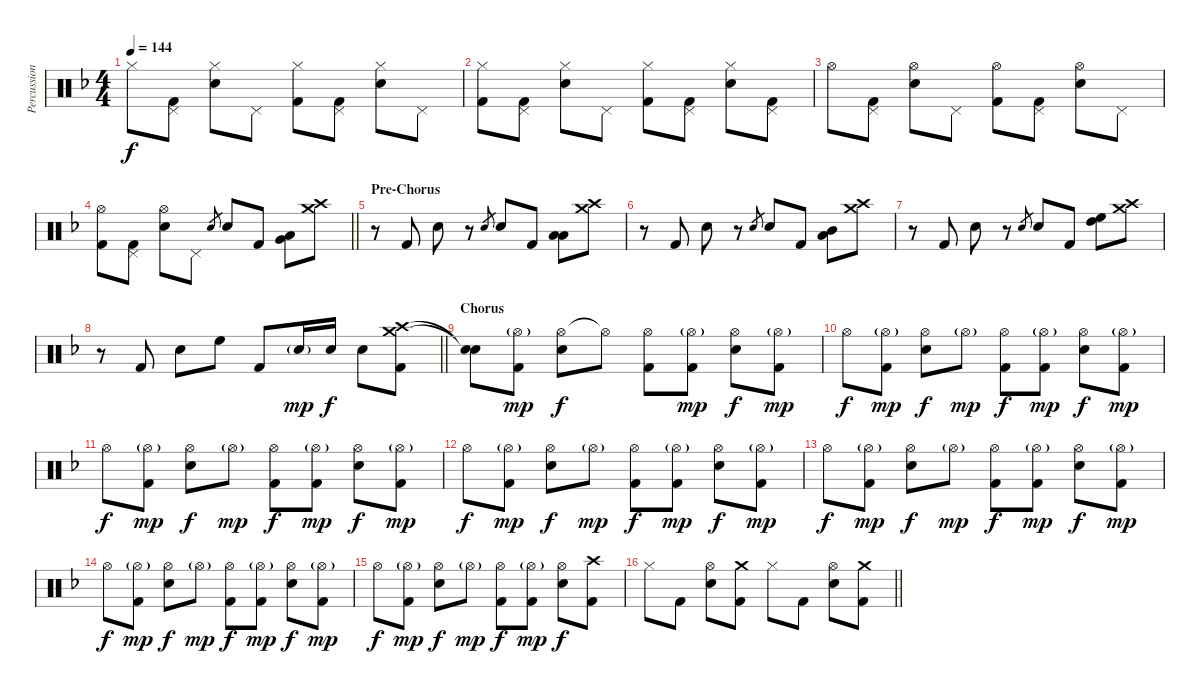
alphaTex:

\track ("Percussion" "Percussion") {instrument percussion}
\staff {score}
\articulation defaults
\ts (4 4)
\tempo 144
\clef neutral
\ks f "Hi-Hat (closed)".8{dy f}
("Pedal Hi-Hat (hit)" "Kick (hit) 2").8 ("Electric Snare (hit)" "Hi-Hat (closed)").8 "Pedal Hi-Hat (hit)".8 ("Hi-Hat (closed)" "Kick (hit) 2").8 ("Pedal Hi-Hat (hit)" "Kick (hit) 2").8 ("Electric Snare (hit)" "Hi-Hat (closed)").8 "Pedal Hi-Hat (hit)".8 |
("Hi-Hat (closed)" "Kick (hit) 2").8 ("Pedal Hi-Hat (hit)" "Kick (hit) 2").8 ("Electric Snare (hit)" "Hi-Hat (closed)").8 "Pedal Hi-Hat (hit)".8 ("Hi-Hat (closed)" "Kick (hit) 2").8 ("Pedal Hi-Hat (hit)" "Kick (hit) 2").8 ("Electric Snare (hit)" "Hi-Hat (closed)").8 ("Pedal Hi-Hat (hit)" "Kick (hit) 2").8 |
"Hi-Hat (open)".8 ("Pedal Hi-Hat (hit)" "Kick (hit) 2").8 ("Electric Snare (hit)" "Hi-Hat (open)").8 "Pedal Hi-Hat (hit)".8 ("Hi-Hat (open)" "Kick (hit) 2").8 ("Pedal Hi-Hat (hit)" "Kick (hit) 2").8 ("Electric Snare (hit)" "Hi-Hat (open)").8 "Pedal Hi-Hat (hit)".8 |
\barLineRight lightlight
("Hi-Hat (open)" "Kick (hit) 2").8 ("Pedal Hi-Hat (hit)" "Kick (hit) 2").8 ("Electric Snare (hit)" "Hi-Hat (open)").8 "Pedal Hi-Hat (hit)".8 "Electric Snare (hit)".8{gr} "Electric Snare (hit)".8 "Kick (hit) 2".8 ("Low Floor Tom (hit)" "Very Low Tom (hit)").8 ("Crash high (hit)" "Crash medium (hit)").8 |
\section ("" "Pre-Chorus")
r.8 "Kick (hit) 2".8 "Electric Snare (hit)".8 r.8 "Electric Snare (hit)".8{gr} "Electric Snare (hit)".8 "Kick (hit) 2".8 ("Low Tom (hit)" "Low Floor Tom (hit)").8 ("Crash medium (hit)" "Crash high (hit)").8 |
r.8 "Kick (hit) 2".8 "Electric Snare (hit)".8 r.8 "Electric Snare (hit)".8{gr} "Electric Snare (hit)".8 "Kick (hit) 2".8 ("Low Tom (hit)" "Mid Tom (hit)").8 ("Crash medium (hit)" "Crash high (hit)").8 |
r.8 "Kick (hit) 2".8 "Electric Snare (hit)".8 r.8 "Electric Snare (hit)".8{gr} "Electric Snare (hit)".8 "Kick (hit) 2".8 ("High Floor Tom (hit)" "High Tom (hit)").8 ("Crash medium (hit)" "Crash high (hit)").8 |
\barLineRight lightlight
r.8 "Kick (hit) 2".8 "Electric Snare (hit)".8 "High Floor Tom (hit)".8 "Kick (hit) 2".8 "Electric Snare (hit)"{g}.16{dy mp} "Electric Snare (hit)".16{dy f} "Electric Snare (hit)".8 ("Crash medium (hit)" "Crash high (hit)" "Kick (hit) 2").8 |
\section ("" "Chorus")
("Snare (hit)"{t} "Snare (hit)"{t}).8 ("Hi-Hat (open)"{g} "Kick (hit) 2").8{dy mp} ("Hi-Hat (open)" "Electric Snare (hit)").8{dy f} "Hi-Hat (open)"{t}.8 ("Hi-Hat (open)" "Kick (hit) 2").8 ("Hi-Hat (open)"{g} "Kick (hit) 2").8{dy mp} ("Hi-Hat (open)" "Electric Snare (hit)").8{dy f} ("Hi-Hat (open)"{g} "Kick (hit) 2").8{dy mp} |
"Hi-Hat (open)".8{dy f} ("Hi-Hat (open)"{g} "Kick (hit) 2").8{dy mp} ("Hi-Hat (open)" "Electric Snare (hit)").8{dy f} "Hi-Hat (open)"{g}.8{dy mp} ("Hi-Hat (open)" "Kick (hit) 2").8{dy f} ("Hi-Hat (open)"{g} "Kick (hit) 2").8{dy mp} ("Hi-Hat (open)" "Electric Snare (hit)").8{dy f} ("Hi-Hat (open)"{g} "Kick (hit) 2").8{dy mp} |
"Hi-Hat (open)".8{dy f} ("Hi-Hat (open)"{g} "Kick (hit) 2").8{dy mp} ("Hi-Hat (open)" "Electric Snare (hit)").8{dy f} "Hi-Hat (open)"{g}.8{dy mp} ("Hi-Hat (open)" "Kick (hit) 2").8{dy f} ("Hi-Hat (open)"{g} "Kick (hit) 2").8{dy mp} ("Hi-Hat (open)" "Electric Snare (hit)").8{dy f} ("Hi-Hat (open)"{g} "Kick (hit) 2").8{dy mp} |
"Hi-Hat (open)".8{dy f} ("Hi-Hat (open)"{g} "Kick (hit) 2").8{dy mp} ("Hi-Hat (open)" "Electric Snare (hit)").8{dy f} "Hi-Hat (open)"{g}.8{dy mp} ("Hi-Hat (open)" "Kick (hit) 2").8{dy f} ("Hi-Hat (open)"{g} "Kick (hit) 2").8{dy mp} ("Hi-Hat (open)" "Electric Snare (hit)").8{dy f} ("Hi-Hat (open)"{g} "Kick (hit) 2").8{dy mp} |
"Hi-Hat (open)".8{dy f} ("Hi-Hat (open)"{g} "Kick (hit) 2").8{dy mp} ("Hi-Hat (open)" "Electric Snare (hit)").8{dy f} "Hi-Hat (open)"{g}.8{dy mp} ("Hi-Hat (open)" "Kick (hit) 2").8{dy f} ("Hi-Hat (open)"{g} "Kick (hit) 2").8{dy mp} ("Hi-Hat (open)" "Electric Snare (hit)").8{dy f} ("Hi-Hat (open)"{g} "Kick (hit) 2").8{dy mp} |
"Hi-Hat (open)".8{dy f} ("Hi-Hat (open)"{g} "Kick (hit) 2").8{dy mp} ("Hi-Hat (open)" "Electric Snare (hit)").8{dy f} "Hi-Hat (open)"{g}.8{dy mp} ("Hi-Hat (open)" "Kick (hit) 2").8{dy f} ("Hi-Hat (open)"{g} "Kick (hit) 2").8{dy mp} ("Hi-Hat (open)" "Electric Snare (hit)").8{dy f} ("Hi-Hat (open)"{g} "Kick (hit) 2").8{dy mp} |
"Hi-Hat (open)".8{dy f} ("Hi-Hat (open)"{g} "Kick (hit) 2").8{dy mp} ("Hi-Hat (open)" "Electric Snare (hit)").8{dy f} "Hi-Hat (open)"{g}.8{dy mp} ("Hi-Hat (open)" "Kick (hit) 2").8{dy f} ("Hi-Hat (open)"{g} "Kick (hit) 2").8{dy mp} ("Hi-Hat (open)" "Electric Snare (hit)").8{dy f} ("Crash high (hit)" "Kick (hit) 2").8 |
\barLineRight lightlight "Hi-Hat (closed)".8 "Kick (hit) 2".8
("Hi-Hat (open)" "Electric Snare (hit)").8 ("Crash medium (hit)" "Kick (hit) 2").8 "Hi-Hat (closed)".8 "Kick (hit) 2".8 ("Hi-Hat (open)" "Electric Snare (hit)").8 ("Crash medium (hit)" "Kick (hit) 2").8
